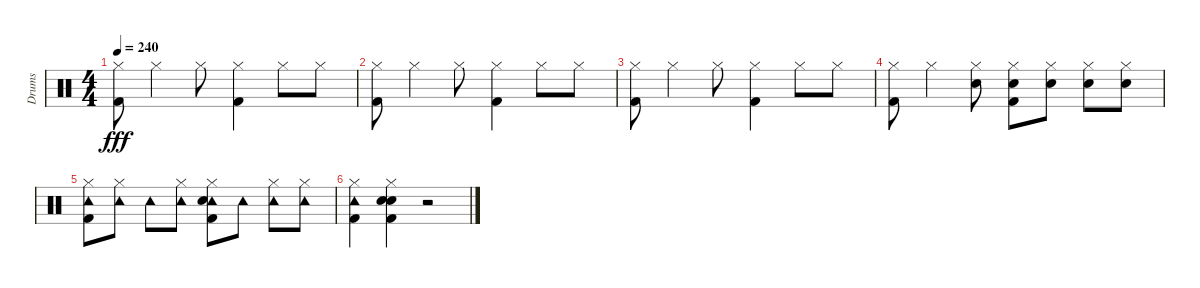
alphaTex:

\track ("Drums" "Drums") {instrument percussion}
\staff {score}
\articulation defaults
\ts (4 4)
\tempo 240
\clef neutral
\ks c
("Hi-Hat (closed)" "Kick (hit) 2").8{dy fff} "Hi-Hat (closed)".4 "Hi-Hat (closed)".8 ("Hi-Hat (closed)" "Kick (hit) 2").4 "Hi-Hat (closed)".8 "Hi-Hat (closed)".8 |
("Hi-Hat (closed)" "Kick (hit) 2").8 "Hi-Hat (closed)".4 "Hi-Hat (closed)".8 ("Hi-Hat (closed)" "Kick (hit) 2").4 "Hi-Hat (closed)".8 "Hi-Hat (closed)".8 |
("Hi-Hat (closed)" "Kick (hit) 2").8 "Hi-Hat (closed)".4 "Hi-Hat (closed)".8 ("Hi-Hat (closed)" "Kick (hit) 2").4 "Hi-Hat (closed)".8 "Hi-Hat (closed)".8 |
("Hi-Hat (closed)" "Kick (hit) 2").8 "Hi-Hat (closed)".4 ("Hi-Hat (closed)" "Snare (hit) 2").8 ("Hi-Hat (closed)" "Snare (hit) 2" "Kick (hit) 2").8 ("Hi-Hat (closed)" "Snare (hit) 2").8 ("Hi-Hat (closed)" "Snare (hit) 2").8 ("Hi-Hat (closed)" "Snare (hit) 2").8 |
("Tambourine (hit)" "Hi-Hat (closed)" "Kick (hit) 2").8 ("Tambourine (hit)" "Hi-Hat (closed)").8 "Tambourine (hit)".8 ("Tambourine (hit)" "Hi-Hat (closed)").8 ("Tambourine (hit)" "Hi-Hat (closed)" "Hand Clap (hit)" "Kick (hit) 2").8 "Tambourine (hit)".8 ("Tambourine (hit)" "Hi-Hat (closed)").8 ("Tambourine (hit)" "Hi-Hat (closed)").8 |
("Tambourine (hit)" "Hi-Hat (closed)" "Kick (hit) 2").4 ("Hand Clap (hit)" "Snare (hit) 2" "Hi-Hat (closed)" "Kick (hit) 2").4 r.2
